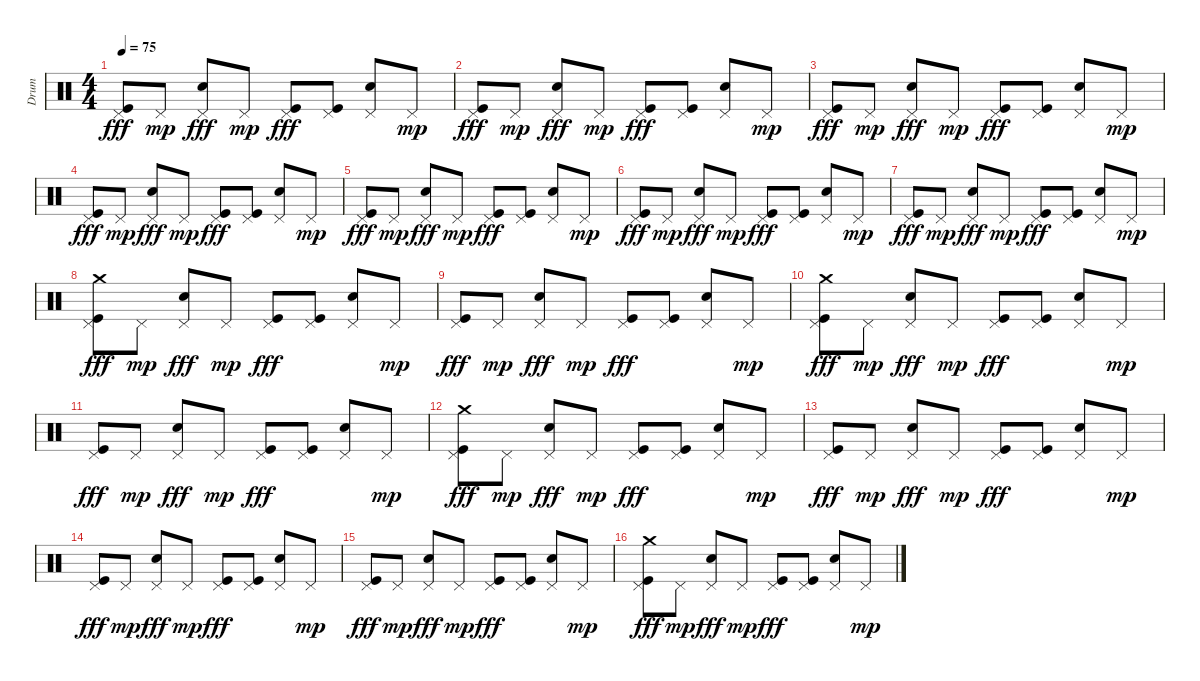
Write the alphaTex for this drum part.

\track ("Drum" "Drum") {instrument percussion}
\staff {score}
\articulation defaults
\ts (4 4)
\tempo 75
\clef neutral
\ks c
("Pedal Hi-Hat (hit)" "Kick (hit)").8{dy fff} "Pedal Hi-Hat (hit)".8{dy mp} ("Pedal Hi-Hat (hit)" "Snare (hit) 2").8{dy fff} "Pedal Hi-Hat (hit)".8{dy mp} ("Pedal Hi-Hat (hit)" "Kick (hit)").8{dy fff} ("Pedal Hi-Hat (hit)" "Kick (hit)").8 ("Pedal Hi-Hat (hit)" "Snare (hit) 2").8 "Pedal Hi-Hat (hit)".8{dy mp} |
("Pedal Hi-Hat (hit)" "Kick (hit)").8{dy fff} "Pedal Hi-Hat (hit)".8{dy mp} ("Pedal Hi-Hat (hit)" "Snare (hit) 2").8{dy fff} "Pedal Hi-Hat (hit)".8{dy mp} ("Pedal Hi-Hat (hit)" "Kick (hit)").8{dy fff} ("Pedal Hi-Hat (hit)" "Kick (hit)").8 ("Pedal Hi-Hat (hit)" "Snare (hit) 2").8 "Pedal Hi-Hat (hit)".8{dy mp} |
("Pedal Hi-Hat (hit)" "Kick (hit)").8{dy fff} "Pedal Hi-Hat (hit)".8{dy mp} ("Pedal Hi-Hat (hit)" "Snare (hit) 2").8{dy fff} "Pedal Hi-Hat (hit)".8{dy mp} ("Pedal Hi-Hat (hit)" "Kick (hit)").8{dy fff} ("Pedal Hi-Hat (hit)" "Kick (hit)").8 ("Pedal Hi-Hat (hit)" "Snare (hit) 2").8 "Pedal Hi-Hat (hit)".8{dy mp} |
("Pedal Hi-Hat (hit)" "Kick (hit)").8{dy fff} "Pedal Hi-Hat (hit)".8{dy mp} ("Pedal Hi-Hat (hit)" "Snare (hit) 2").8{dy fff} "Pedal Hi-Hat (hit)".8{dy mp} ("Pedal Hi-Hat (hit)" "Kick (hit)").8{dy fff} ("Pedal Hi-Hat (hit)" "Kick (hit)").8 ("Pedal Hi-Hat (hit)" "Snare (hit) 2").8 "Pedal Hi-Hat (hit)".8{dy mp} |
("Pedal Hi-Hat (hit)" "Kick (hit)").8{dy fff} "Pedal Hi-Hat (hit)".8{dy mp} ("Pedal Hi-Hat (hit)" "Snare (hit) 2").8{dy fff} "Pedal Hi-Hat (hit)".8{dy mp} ("Pedal Hi-Hat (hit)" "Kick (hit)").8{dy fff} ("Pedal Hi-Hat (hit)" "Kick (hit)").8 ("Pedal Hi-Hat (hit)" "Snare (hit) 2").8 "Pedal Hi-Hat (hit)".8{dy mp} |
("Pedal Hi-Hat (hit)" "Kick (hit)").8{dy fff} "Pedal Hi-Hat (hit)".8{dy mp} ("Pedal Hi-Hat (hit)" "Snare (hit) 2").8{dy fff} "Pedal Hi-Hat (hit)".8{dy mp} ("Pedal Hi-Hat (hit)" "Kick (hit)").8{dy fff} ("Pedal Hi-Hat (hit)" "Kick (hit)").8 ("Pedal Hi-Hat (hit)" "Snare (hit) 2").8 "Pedal Hi-Hat (hit)".8{dy mp} |
("Pedal Hi-Hat (hit)" "Kick (hit)").8{dy fff} "Pedal Hi-Hat (hit)".8{dy mp} ("Pedal Hi-Hat (hit)" "Snare (hit) 2").8{dy fff} "Pedal Hi-Hat (hit)".8{dy mp} ("Pedal Hi-Hat (hit)" "Kick (hit)").8{dy fff} ("Pedal Hi-Hat (hit)" "Kick (hit)").8 ("Pedal Hi-Hat (hit)" "Snare (hit) 2").8 "Pedal Hi-Hat (hit)".8{dy mp} |
("Pedal Hi-Hat (hit)" "Kick (hit)" "Crash medium (hit)").8{dy fff} "Pedal Hi-Hat (hit)".8{dy mp} ("Pedal Hi-Hat (hit)" "Snare (hit) 2").8{dy fff} "Pedal Hi-Hat (hit)".8{dy mp} ("Pedal Hi-Hat (hit)" "Kick (hit)").8{dy fff} ("Pedal Hi-Hat (hit)" "Kick (hit)").8 ("Pedal Hi-Hat (hit)" "Snare (hit) 2").8 "Pedal Hi-Hat (hit)".8{dy mp} |
("Pedal Hi-Hat (hit)" "Kick (hit)").8{dy fff} "Pedal Hi-Hat (hit)".8{dy mp} ("Pedal Hi-Hat (hit)" "Snare (hit) 2").8{dy fff} "Pedal Hi-Hat (hit)".8{dy mp} ("Pedal Hi-Hat (hit)" "Kick (hit)").8{dy fff} ("Pedal Hi-Hat (hit)" "Kick (hit)").8 ("Pedal Hi-Hat (hit)" "Snare (hit) 2").8 "Pedal Hi-Hat (hit)".8{dy mp} |
("Pedal Hi-Hat (hit)" "Kick (hit)" "Crash medium (hit)").8{dy fff} "Pedal Hi-Hat (hit)".8{dy mp} ("Pedal Hi-Hat (hit)" "Snare (hit) 2").8{dy fff} "Pedal Hi-Hat (hit)".8{dy mp} ("Pedal Hi-Hat (hit)" "Kick (hit)").8{dy fff} ("Pedal Hi-Hat (hit)" "Kick (hit)").8 ("Pedal Hi-Hat (hit)" "Snare (hit) 2").8 "Pedal Hi-Hat (hit)".8{dy mp} |
("Pedal Hi-Hat (hit)" "Kick (hit)").8{dy fff} "Pedal Hi-Hat (hit)".8{dy mp} ("Pedal Hi-Hat (hit)" "Snare (hit) 2").8{dy fff} "Pedal Hi-Hat (hit)".8{dy mp} ("Pedal Hi-Hat (hit)" "Kick (hit)").8{dy fff} ("Pedal Hi-Hat (hit)" "Kick (hit)").8 ("Pedal Hi-Hat (hit)" "Snare (hit) 2").8 "Pedal Hi-Hat (hit)".8{dy mp} |
("Pedal Hi-Hat (hit)" "Kick (hit)" "Crash medium (hit)").8{dy fff} "Pedal Hi-Hat (hit)".8{dy mp} ("Pedal Hi-Hat (hit)" "Snare (hit) 2").8{dy fff} "Pedal Hi-Hat (hit)".8{dy mp} ("Pedal Hi-Hat (hit)" "Kick (hit)").8{dy fff} ("Pedal Hi-Hat (hit)" "Kick (hit)").8 ("Pedal Hi-Hat (hit)" "Snare (hit) 2").8 "Pedal Hi-Hat (hit)".8{dy mp} |
("Pedal Hi-Hat (hit)" "Kick (hit)").8{dy fff} "Pedal Hi-Hat (hit)".8{dy mp} ("Pedal Hi-Hat (hit)" "Snare (hit) 2").8{dy fff} "Pedal Hi-Hat (hit)".8{dy mp} ("Pedal Hi-Hat (hit)" "Kick (hit)").8{dy fff} ("Pedal Hi-Hat (hit)" "Kick (hit)").8 ("Pedal Hi-Hat (hit)" "Snare (hit) 2").8 "Pedal Hi-Hat (hit)".8{dy mp} |
("Pedal Hi-Hat (hit)" "Kick (hit)").8{dy fff} "Pedal Hi-Hat (hit)".8{dy mp} ("Pedal Hi-Hat (hit)" "Snare (hit) 2").8{dy fff} "Pedal Hi-Hat (hit)".8{dy mp} ("Pedal Hi-Hat (hit)" "Kick (hit)").8{dy fff} ("Pedal Hi-Hat (hit)" "Kick (hit)").8 ("Pedal Hi-Hat (hit)" "Snare (hit) 2").8 "Pedal Hi-Hat (hit)".8{dy mp} |
("Pedal Hi-Hat (hit)" "Kick (hit)").8{dy fff} "Pedal Hi-Hat (hit)".8{dy mp} ("Pedal Hi-Hat (hit)" "Snare (hit) 2").8{dy fff} "Pedal Hi-Hat (hit)".8{dy mp} ("Pedal Hi-Hat (hit)" "Kick (hit)").8{dy fff} ("Pedal Hi-Hat (hit)" "Kick (hit)").8 ("Pedal Hi-Hat (hit)" "Snare (hit) 2").8 "Pedal Hi-Hat (hit)".8{dy mp} |
("Pedal Hi-Hat (hit)" "Kick (hit)" "Crash medium (hit)").8{dy fff} "Pedal Hi-Hat (hit)".8{dy mp} ("Pedal Hi-Hat (hit)" "Snare (hit) 2").8{dy fff} "Pedal Hi-Hat (hit)".8{dy mp} ("Pedal Hi-Hat (hit)" "Kick (hit)").8{dy fff} ("Pedal Hi-Hat (hit)" "Kick (hit)").8 ("Pedal Hi-Hat (hit)" "Snare (hit) 2").8 "Pedal Hi-Hat (hit)".8{dy mp}
